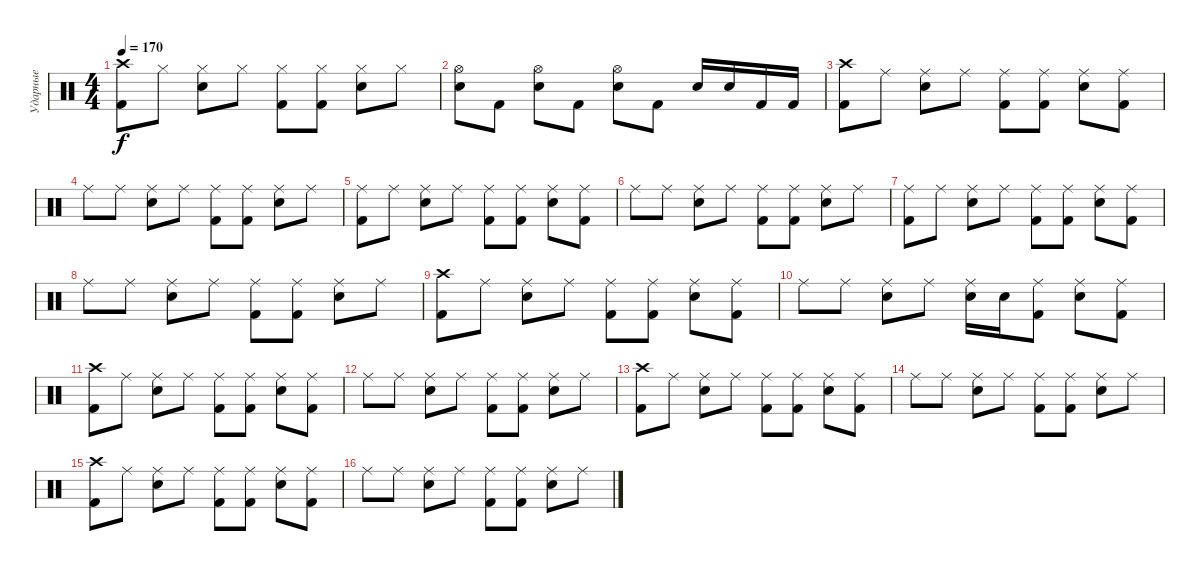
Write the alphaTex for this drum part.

\track ("Ударные" "Ударные") {instrument percussion}
\staff {score}
\articulation defaults
\ts (4 4)
\tempo 170
\clef neutral
\ks c
("Crash high (hit)" "Kick (hit) 2").8{dy f} "Hi-Hat (closed)".8 ("Hi-Hat (closed)" "Electric Snare (hit)").8 "Hi-Hat (closed)".8 ("Hi-Hat (closed)" "Kick (hit) 2").8 ("Hi-Hat (closed)" "Kick (hit) 2").8 ("Hi-Hat (closed)" "Electric Snare (hit)").8 "Hi-Hat (closed)".8 |
("Hi-Hat (open)" "Electric Snare (hit)").8 "Kick (hit) 2".8 ("Hi-Hat (open)" "Electric Snare (hit)").8 "Kick (hit) 2".8 ("Hi-Hat (open)" "Electric Snare (hit)").8 "Kick (hit) 2".8 "Electric Snare (hit)".16 "Electric Snare (hit)".16 "Kick (hit) 2".16 "Kick (hit) 2".16 |
("Crash high (hit)" "Kick (hit) 2").8 "Ride (middle)".8 ("Ride (middle)" "Electric Snare (hit)").8 "Ride (middle)".8 ("Ride (middle)" "Kick (hit) 2").8 ("Ride (middle)" "Kick (hit) 2").8 ("Ride (middle)" "Electric Snare (hit)").8 ("Ride (middle)" "Kick (hit) 2").8 |
"Ride (middle)".8 "Ride (middle)".8 ("Ride (middle)" "Electric Snare (hit)").8 "Ride (middle)".8 ("Ride (middle)" "Kick (hit) 2").8 ("Ride (middle)" "Kick (hit) 2").8 ("Ride (middle)" "Electric Snare (hit)").8 "Ride (middle)".8 |
("Ride (middle)" "Kick (hit) 2").8 "Ride (middle)".8 ("Ride (middle)" "Electric Snare (hit)").8 "Ride (middle)".8 ("Ride (middle)" "Kick (hit) 2").8 ("Ride (middle)" "Kick (hit) 2").8 ("Ride (middle)" "Electric Snare (hit)").8 ("Ride (middle)" "Kick (hit) 2").8 |
"Ride (middle)".8 "Ride (middle)".8 ("Ride (middle)" "Electric Snare (hit)").8 "Ride (middle)".8 ("Ride (middle)" "Kick (hit) 2").8 ("Ride (middle)" "Kick (hit) 2").8 ("Ride (middle)" "Electric Snare (hit)").8 "Ride (middle)".8 |
("Ride (middle)" "Kick (hit) 2").8 "Ride (middle)".8 ("Ride (middle)" "Electric Snare (hit)").8 "Ride (middle)".8 ("Ride (middle)" "Kick (hit) 2").8 ("Ride (middle)" "Kick (hit) 2").8 ("Ride (middle)" "Electric Snare (hit)").8 ("Ride (middle)" "Kick (hit) 2").8 |
"Ride (middle)".8 "Ride (middle)".8 ("Ride (middle)" "Electric Snare (hit)").8 "Ride (middle)".8 ("Ride (middle)" "Kick (hit) 2").8 ("Ride (middle)" "Kick (hit) 2").8 ("Ride (middle)" "Electric Snare (hit)").8 "Ride (middle)".8 |
("Crash high (hit)" "Kick (hit) 2").8 "Ride (middle)".8 ("Ride (middle)" "Electric Snare (hit)").8 "Ride (middle)".8 ("Ride (middle)" "Kick (hit) 2").8 ("Ride (middle)" "Kick (hit) 2").8 ("Ride (middle)" "Electric Snare (hit)").8 ("Ride (middle)" "Kick (hit) 2").8 |
"Ride (middle)".8 "Ride (middle)".8 ("Ride (middle)" "Electric Snare (hit)").8 "Ride (middle)".8 ("Ride (middle)" "Electric Snare (hit)").16 "Electric Snare (hit)".16 ("Ride (middle)" "Kick (hit) 2").8 ("Ride (middle)" "Electric Snare (hit)").8 ("Ride (middle)" "Kick (hit) 2").8 |
("Crash high (hit)" "Kick (hit) 2").8 "Ride (middle)".8 ("Ride (middle)" "Electric Snare (hit)").8 "Ride (middle)".8 ("Ride (middle)" "Kick (hit) 2").8 ("Ride (middle)" "Kick (hit) 2").8 ("Ride (middle)" "Electric Snare (hit)").8 ("Ride (middle)" "Kick (hit) 2").8 |
"Ride (middle)".8 "Ride (middle)".8 ("Ride (middle)" "Electric Snare (hit)").8 "Ride (middle)".8 ("Ride (middle)" "Kick (hit) 2").8 ("Ride (middle)" "Kick (hit) 2").8 ("Ride (middle)" "Electric Snare (hit)").8 "Ride (middle)".8 |
("Crash high (hit)" "Kick (hit) 2").8 "Ride (middle)".8 ("Ride (middle)" "Electric Snare (hit)").8 "Ride (middle)".8 ("Ride (middle)" "Kick (hit) 2").8 ("Ride (middle)" "Kick (hit) 2").8 ("Ride (middle)" "Electric Snare (hit)").8 ("Ride (middle)" "Kick (hit) 2").8 |
"Ride (middle)".8 "Ride (middle)".8 ("Ride (middle)" "Electric Snare (hit)").8 "Ride (middle)".8 ("Ride (middle)" "Kick (hit) 2").8 ("Ride (middle)" "Kick (hit) 2").8 ("Ride (middle)" "Electric Snare (hit)").8 "Ride (middle)".8 |
("Crash high (hit)" "Kick (hit) 2").8 "Ride (middle)".8 ("Ride (middle)" "Electric Snare (hit)").8 "Ride (middle)".8 ("Ride (middle)" "Kick (hit) 2").8 ("Ride (middle)" "Kick (hit) 2").8 ("Ride (middle)" "Electric Snare (hit)").8 ("Ride (middle)" "Kick (hit) 2").8 |
"Ride (middle)".8 "Ride (middle)".8 ("Ride (middle)" "Electric Snare (hit)").8 "Ride (middle)".8 ("Ride (middle)" "Kick (hit) 2").8 ("Ride (middle)" "Kick (hit) 2").8 ("Ride (middle)" "Electric Snare (hit)").8 "Ride (middle)".8
